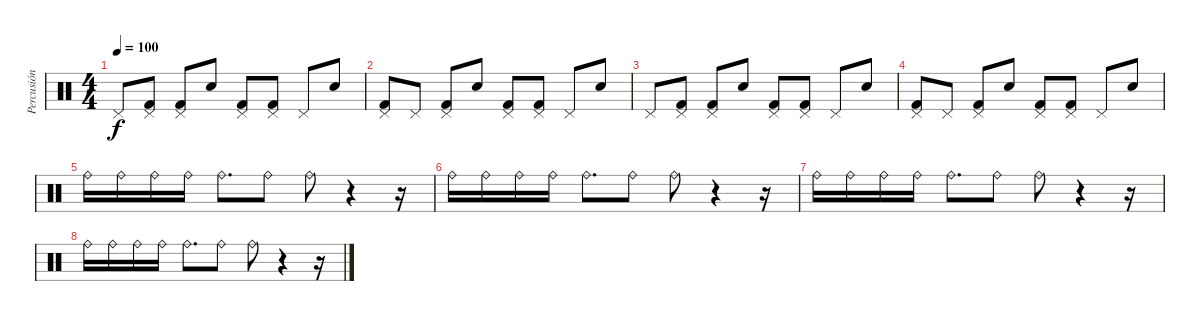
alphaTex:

\track ("Percusión" "Percusión") {instrument percussion}
\staff {score}
\articulation defaults
\ts (4 4)
\tempo 100
\clef neutral
\ks c "Pedal Hi-Hat (hit)".8{dy f}
("Pedal Hi-Hat (hit)" "Kick (hit) 2").8 ("Pedal Hi-Hat (hit)" "Kick (hit) 2").8 "Electric Snare (hit)".8 ("Kick (hit) 2" "Pedal Hi-Hat (hit)").8 ("Pedal Hi-Hat (hit)" "Kick (hit) 2").8 "Pedal Hi-Hat (hit)".8 "Electric Snare (hit)".8 |
("Pedal Hi-Hat (hit)" "Kick (hit) 2").8 "Pedal Hi-Hat (hit)".8 ("Pedal Hi-Hat (hit)" "Kick (hit) 2").8 "Electric Snare (hit)".8 ("Kick (hit) 2" "Pedal Hi-Hat (hit)").8 ("Pedal Hi-Hat (hit)" "Kick (hit) 2").8 "Pedal Hi-Hat (hit)".8 "Electric Snare (hit)".8 |
"Pedal Hi-Hat (hit)".8 ("Pedal Hi-Hat (hit)" "Kick (hit) 2").8 ("Pedal Hi-Hat (hit)" "Kick (hit) 2").8 "Electric Snare (hit)".8 ("Kick (hit) 2" "Pedal Hi-Hat (hit)").8 ("Pedal Hi-Hat (hit)" "Kick (hit) 2").8 "Pedal Hi-Hat (hit)".8 "Electric Snare (hit)".8 |
("Pedal Hi-Hat (hit)" "Kick (hit) 2").8 "Pedal Hi-Hat (hit)".8 ("Pedal Hi-Hat (hit)" "Kick (hit) 2").8 "Electric Snare (hit)".8 ("Kick (hit) 2" "Pedal Hi-Hat (hit)").8 ("Pedal Hi-Hat (hit)" "Kick (hit) 2").8 "Pedal Hi-Hat (hit)".8 "Electric Snare (hit)".8 |
"Ride (bell)".16 "Ride (bell)".16 "Ride (bell)".16 "Ride (bell)".16 "Ride (bell)".8{d} "Ride (bell)".8 "Ride (bell)".8 r.4 r.16 |
"Ride (bell)".16{volume 0} "Ride (bell)".16 "Ride (bell)".16 "Ride (bell)".16 "Ride (bell)".8{d} "Ride (bell)".8 "Ride (bell)".8 r.4 r.16 |
"Ride (bell)".16 "Ride (bell)".16 "Ride (bell)".16 "Ride (bell)".16 "Ride (bell)".8{d} "Ride (bell)".8 "Ride (bell)".8 r.4 r.16 |
"Ride (bell)".16 "Ride (bell)".16 "Ride (bell)".16 "Ride (bell)".16 "Ride (bell)".8{d} "Ride (bell)".8 "Ride (bell)".8 r.4 r.16
